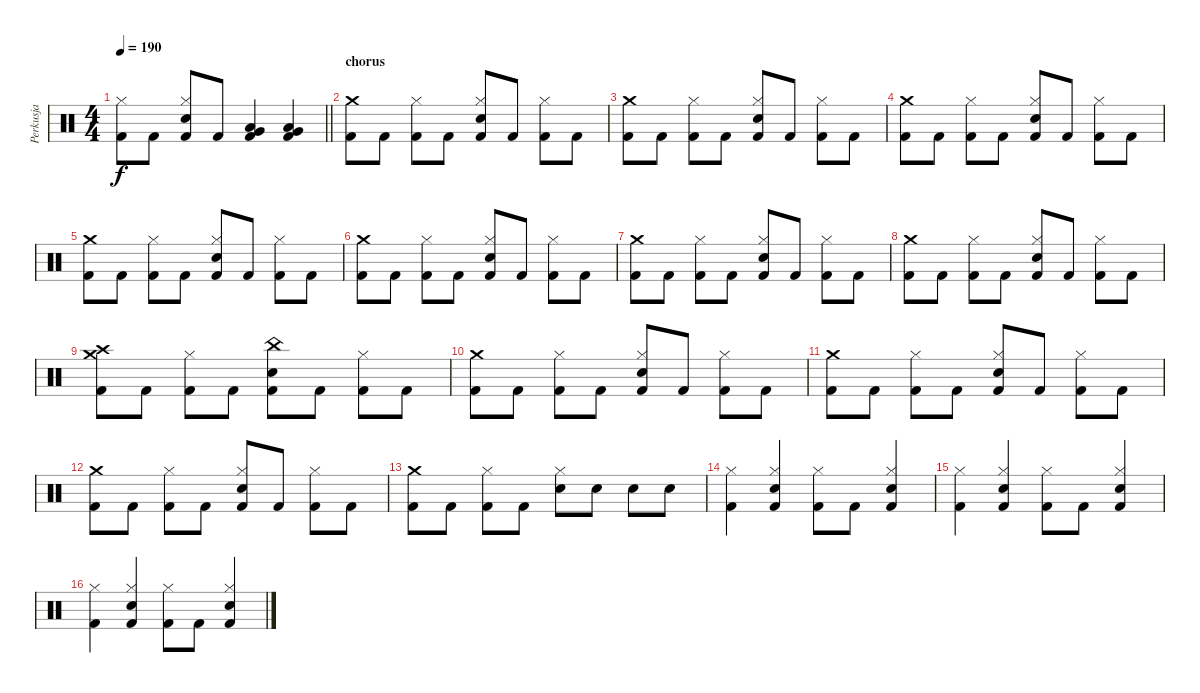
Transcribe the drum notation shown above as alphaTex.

\track ("Perkusja" "Perkusja") {instrument percussion}
\staff {score}
\articulation defaults
\ts (4 4)
\tempo 190
\clef neutral
\barLineRight lightlight
\ks c
("Kick (hit) 2" "Hi-Hat (closed)").8{dy f} "Kick (hit) 2".8 ("Kick (hit) 2" "Snare (hit) 2" "Hi-Hat (closed)").8 "Kick (hit) 2".8 ("Low Floor Tom (hit)" "Very Low Tom (hit)" "Kick (hit) 2").4 ("Low Floor Tom (hit)" "Very Low Tom (hit)" "Kick (hit) 2").4 |
\section ("" "chorus")
("Kick (hit) 2" "Crash medium (hit)").8 "Kick (hit) 2".8 ("Kick (hit) 2" "Hi-Hat (closed)").8 "Kick (hit) 2".8 ("Kick (hit) 2" "Hi-Hat (closed)" "Snare (hit) 2").8 "Kick (hit) 2".8 ("Kick (hit) 2" "Hi-Hat (closed)").8 "Kick (hit) 2".8 |
("Kick (hit) 2" "Crash medium (hit)").8 "Kick (hit) 2".8 ("Kick (hit) 2" "Hi-Hat (closed)").8 "Kick (hit) 2".8 ("Kick (hit) 2" "Hi-Hat (closed)" "Snare (hit) 2").8 "Kick (hit) 2".8 ("Kick (hit) 2" "Hi-Hat (closed)").8 "Kick (hit) 2".8 |
("Kick (hit) 2" "Crash medium (hit)").8 "Kick (hit) 2".8 ("Kick (hit) 2" "Hi-Hat (closed)").8 "Kick (hit) 2".8 ("Kick (hit) 2" "Hi-Hat (closed)" "Snare (hit) 2").8 "Kick (hit) 2".8 ("Kick (hit) 2" "Hi-Hat (closed)").8 "Kick (hit) 2".8 |
("Kick (hit) 2" "Crash medium (hit)").8 "Kick (hit) 2".8 ("Kick (hit) 2" "Hi-Hat (closed)").8 "Kick (hit) 2".8 ("Kick (hit) 2" "Hi-Hat (closed)" "Snare (hit) 2").8 "Kick (hit) 2".8 ("Kick (hit) 2" "Hi-Hat (closed)").8 "Kick (hit) 2".8 |
("Kick (hit) 2" "Crash medium (hit)").8 "Kick (hit) 2".8 ("Kick (hit) 2" "Hi-Hat (closed)").8 "Kick (hit) 2".8 ("Kick (hit) 2" "Hi-Hat (closed)" "Snare (hit) 2").8 "Kick (hit) 2".8 ("Kick (hit) 2" "Hi-Hat (closed)").8 "Kick (hit) 2".8 |
("Kick (hit) 2" "Crash medium (hit)").8 "Kick (hit) 2".8 ("Kick (hit) 2" "Hi-Hat (closed)").8 "Kick (hit) 2".8 ("Kick (hit) 2" "Hi-Hat (closed)" "Snare (hit) 2").8 "Kick (hit) 2".8 ("Kick (hit) 2" "Hi-Hat (closed)").8 "Kick (hit) 2".8 |
("Kick (hit) 2" "Crash medium (hit)").8 "Kick (hit) 2".8 ("Kick (hit) 2" "Hi-Hat (closed)").8 "Kick (hit) 2".8 ("Kick (hit) 2" "Hi-Hat (closed)" "Snare (hit) 2").8 "Kick (hit) 2".8 ("Kick (hit) 2" "Hi-Hat (closed)").8 "Kick (hit) 2".8 |
("Kick (hit) 2" "Crash medium (hit)" "Crash high (hit)").8 "Kick (hit) 2".8 ("Kick (hit) 2" "Hi-Hat (closed)").8 "Kick (hit) 2".8 ("Kick (hit) 2" "Snare (hit) 2" "China (hit)").8 "Kick (hit) 2".8 ("Kick (hit) 2" "Hi-Hat (closed)").8 "Kick (hit) 2".8 |
("Kick (hit) 2" "Crash medium (hit)").8 "Kick (hit) 2".8 ("Kick (hit) 2" "Hi-Hat (closed)").8 "Kick (hit) 2".8 ("Kick (hit) 2" "Hi-Hat (closed)" "Snare (hit) 2").8 "Kick (hit) 2".8 ("Kick (hit) 2" "Hi-Hat (closed)").8 "Kick (hit) 2".8 |
("Kick (hit) 2" "Crash medium (hit)").8 "Kick (hit) 2".8 ("Kick (hit) 2" "Hi-Hat (closed)").8 "Kick (hit) 2".8 ("Kick (hit) 2" "Hi-Hat (closed)" "Snare (hit) 2").8 "Kick (hit) 2".8 ("Kick (hit) 2" "Hi-Hat (closed)").8 "Kick (hit) 2".8 |
("Kick (hit) 2" "Crash medium (hit)").8 "Kick (hit) 2".8 ("Kick (hit) 2" "Hi-Hat (closed)").8 "Kick (hit) 2".8 ("Kick (hit) 2" "Hi-Hat (closed)" "Snare (hit) 2").8 "Kick (hit) 2".8 ("Kick (hit) 2" "Hi-Hat (closed)").8 "Kick (hit) 2".8 |
("Kick (hit) 2" "Crash medium (hit)").8 "Kick (hit) 2".8 ("Kick (hit) 2" "Hi-Hat (closed)").8 "Kick (hit) 2".8 ("Snare (hit) 2" "Hi-Hat (closed)").8 "Snare (hit) 2".8 "Snare (hit) 2".8 "Snare (hit) 2".8 |
("Kick (hit) 2" "Hi-Hat (closed)").4 ("Kick (hit) 2" "Hi-Hat (closed)" "Snare (hit) 2").4 ("Kick (hit) 2" "Hi-Hat (closed)").8 "Kick (hit) 2".8 ("Kick (hit) 2" "Hi-Hat (closed)" "Snare (hit) 2").4 |
("Kick (hit) 2" "Hi-Hat (closed)").4 ("Kick (hit) 2" "Hi-Hat (closed)" "Snare (hit) 2").4 ("Kick (hit) 2" "Hi-Hat (closed)").8 "Kick (hit) 2".8 ("Kick (hit) 2" "Hi-Hat (closed)" "Snare (hit) 2").4 |
("Kick (hit) 2" "Hi-Hat (closed)").4 ("Kick (hit) 2" "Hi-Hat (closed)" "Snare (hit) 2").4 ("Kick (hit) 2" "Hi-Hat (closed)").8 "Kick (hit) 2".8 ("Kick (hit) 2" "Hi-Hat (closed)" "Snare (hit) 2").4
